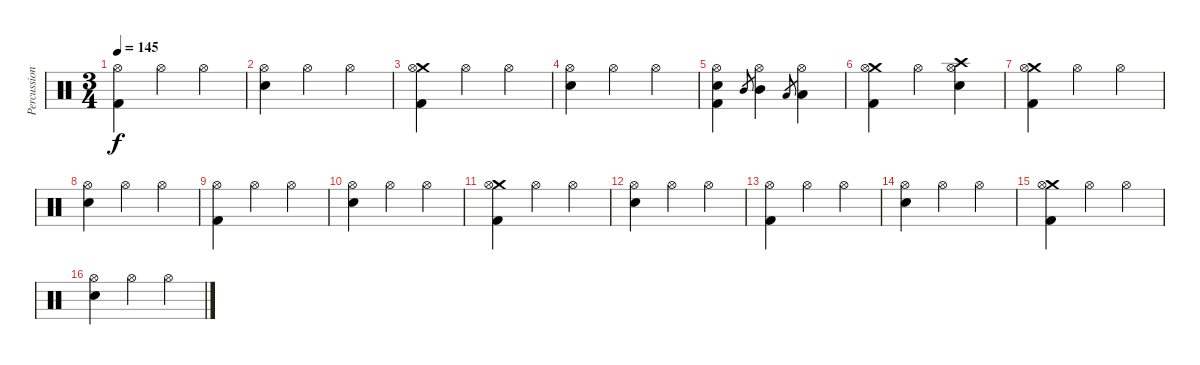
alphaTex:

\track ("Percussion" "Percussion") {instrument percussion}
\staff {score}
\articulation defaults
\ts (3 4)
\tempo 145
\clef neutral
\ks c
("Hi-Hat (open)" "Kick (hit) 2").4{dy f} "Hi-Hat (open)".4 "Hi-Hat (open)".4 |
("Hi-Hat (open)" "Electric Snare (hit)").4 "Hi-Hat (open)".4 "Hi-Hat (open)".4 |
("Crash medium (hit)" "Hi-Hat (open)" "Kick (hit) 2").4 "Hi-Hat (open)".4 "Hi-Hat (open)".4 |
("Hi-Hat (open)" "Electric Snare (hit)").4 "Hi-Hat (open)".4 "Hi-Hat (open)".4 |
("Hi-Hat (open)" "Electric Snare (hit)" "Kick (hit) 2").4 "Mid Tom (hit)".8{gr} ("Hi-Hat (open)" "Mid Tom (hit)").4 "Low Tom (hit)".8{gr} ("Hi-Hat (open)" "Low Tom (hit)").4 |
("Crash medium (hit)" "Hi-Hat (open)" "Kick (hit) 2").4 "Hi-Hat (open)".4 ("Crash high (hit)" "Hi-Hat (open)" "Electric Snare (hit)").4 |
("Crash medium (hit)" "Hi-Hat (open)" "Kick (hit) 2").4 "Hi-Hat (open)".4 "Hi-Hat (open)".4 |
("Hi-Hat (open)" "Electric Snare (hit)").4 "Hi-Hat (open)".4 "Hi-Hat (open)".4 |
("Hi-Hat (open)" "Kick (hit) 2").4 "Hi-Hat (open)".4 "Hi-Hat (open)".4 |
("Hi-Hat (open)" "Electric Snare (hit)").4 "Hi-Hat (open)".4 "Hi-Hat (open)".4 |
("Crash medium (hit)" "Hi-Hat (open)" "Kick (hit) 2").4 "Hi-Hat (open)".4 "Hi-Hat (open)".4 |
("Hi-Hat (open)" "Electric Snare (hit)").4 "Hi-Hat (open)".4 "Hi-Hat (open)".4 |
("Hi-Hat (open)" "Kick (hit) 2").4 "Hi-Hat (open)".4 "Hi-Hat (open)".4 |
("Hi-Hat (open)" "Electric Snare (hit)").4 "Hi-Hat (open)".4 "Hi-Hat (open)".4 |
("Crash medium (hit)" "Hi-Hat (open)" "Kick (hit) 2").4 "Hi-Hat (open)".4 "Hi-Hat (open)".4 |
("Hi-Hat (open)" "Electric Snare (hit)").4 "Hi-Hat (open)".4 "Hi-Hat (open)".4
